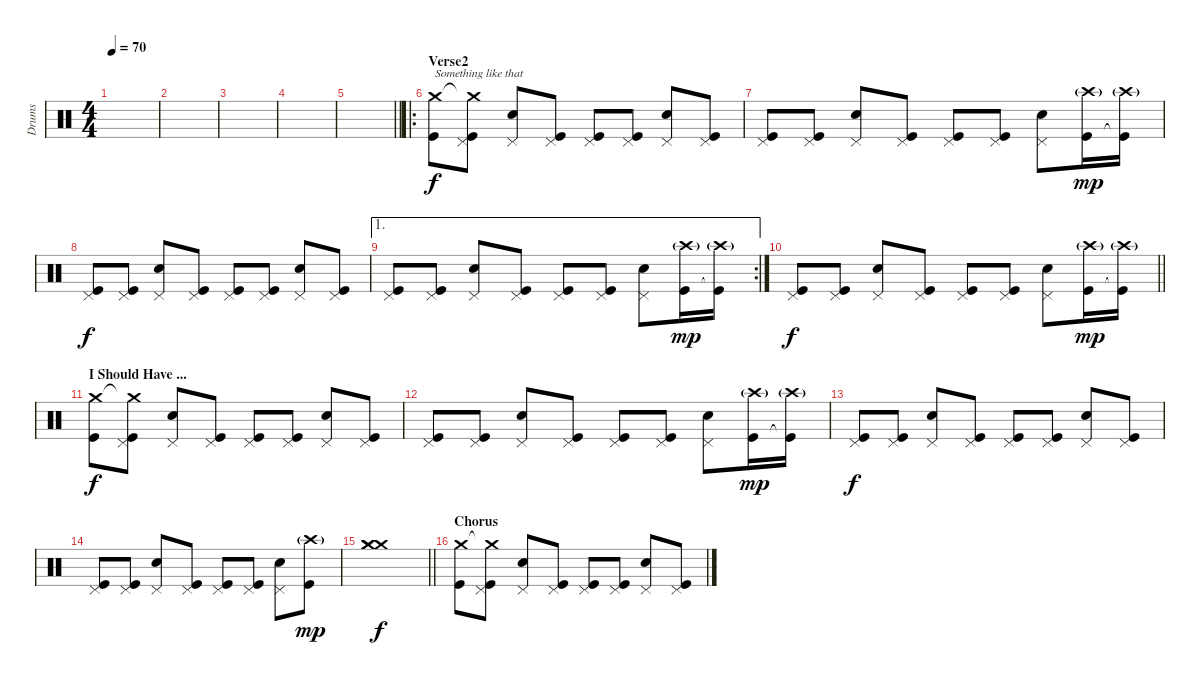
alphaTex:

\track ("Drums" "Drums") {instrument percussion}
\staff {score}
\articulation defaults
\ts (4 4)
\tempo 70
\clef neutral
\ks c
|
|
|
|
\barLineRight lightlight
|
\ro
\section ("" "Verse2")
("Crash medium (hit)" "Kick (hit)").8{txt "Something like that"} ("Crash medium (hit)"{t} "Pedal Hi-Hat (hit)" "Kick (hit)").8 ("Pedal Hi-Hat (hit)" "Snare (hit) 2").8 ("Pedal Hi-Hat (hit)" "Kick (hit)").8 ("Pedal Hi-Hat (hit)" "Kick (hit)").8 ("Pedal Hi-Hat (hit)" "Kick (hit)").8 ("Pedal Hi-Hat (hit)" "Snare (hit) 2").8 ("Pedal Hi-Hat (hit)" "Kick (hit)").8 |
("Pedal Hi-Hat (hit)" "Kick (hit)").8 ("Pedal Hi-Hat (hit)" "Kick (hit)").8 ("Pedal Hi-Hat (hit)" "Snare (hit) 2").8 ("Pedal Hi-Hat (hit)" "Kick (hit)").8 ("Pedal Hi-Hat (hit)" "Kick (hit)").8 ("Pedal Hi-Hat (hit)" "Kick (hit)").8 ("Pedal Hi-Hat (hit)" "Snare (hit) 2").8 ("Crash high (hit)"{g} "Kick (hit)").16{dy mp} ("Crash high (hit)"{g} "Kick (hit)"{t}).16 |
("Pedal Hi-Hat (hit)" "Kick (hit)").8{dy f} ("Pedal Hi-Hat (hit)" "Kick (hit)").8 ("Pedal Hi-Hat (hit)" "Snare (hit) 2").8 ("Pedal Hi-Hat (hit)" "Kick (hit)").8 ("Pedal Hi-Hat (hit)" "Kick (hit)").8 ("Pedal Hi-Hat (hit)" "Kick (hit)").8 ("Pedal Hi-Hat (hit)" "Snare (hit) 2").8 ("Pedal Hi-Hat (hit)" "Kick (hit)").8 |
\ae 1
\rc 2
("Pedal Hi-Hat (hit)" "Kick (hit)").8 ("Pedal Hi-Hat (hit)" "Kick (hit)").8 ("Pedal Hi-Hat (hit)" "Snare (hit) 2").8 ("Pedal Hi-Hat (hit)" "Kick (hit)").8 ("Pedal Hi-Hat (hit)" "Kick (hit)").8 ("Pedal Hi-Hat (hit)" "Kick (hit)").8 ("Pedal Hi-Hat (hit)" "Snare (hit) 2").8 ("Crash high (hit)"{g} "Kick (hit)").16{dy mp} ("Crash high (hit)"{g} "Kick (hit)"{t}).16 |
\barLineRight lightlight
("Pedal Hi-Hat (hit)" "Kick (hit)").8{dy f} ("Pedal Hi-Hat (hit)" "Kick (hit)").8 ("Pedal Hi-Hat (hit)" "Snare (hit) 2").8 ("Pedal Hi-Hat (hit)" "Kick (hit)").8 ("Pedal Hi-Hat (hit)" "Kick (hit)").8 ("Pedal Hi-Hat (hit)" "Kick (hit)").8 ("Pedal Hi-Hat (hit)" "Snare (hit) 2").8 ("Crash high (hit)"{g} "Kick (hit)").16{dy mp} ("Crash high (hit)"{g} "Kick (hit)"{t}).16 |
\section ("" "I Should Have ...")
("Crash medium (hit)" "Kick (hit)").8{dy f} ("Crash medium (hit)"{t} "Pedal Hi-Hat (hit)" "Kick (hit)").8 ("Pedal Hi-Hat (hit)" "Snare (hit) 2").8 ("Pedal Hi-Hat (hit)" "Kick (hit)").8 ("Pedal Hi-Hat (hit)" "Kick (hit)").8 ("Pedal Hi-Hat (hit)" "Kick (hit)").8 ("Pedal Hi-Hat (hit)" "Snare (hit) 2").8 ("Pedal Hi-Hat (hit)" "Kick (hit)").8 |
("Pedal Hi-Hat (hit)" "Kick (hit)").8 ("Pedal Hi-Hat (hit)" "Kick (hit)").8 ("Pedal Hi-Hat (hit)" "Snare (hit) 2").8 ("Pedal Hi-Hat (hit)" "Kick (hit)").8 ("Pedal Hi-Hat (hit)" "Kick (hit)").8 ("Pedal Hi-Hat (hit)" "Kick (hit)").8 ("Pedal Hi-Hat (hit)" "Snare (hit) 2").8 ("Crash high (hit)"{g} "Kick (hit)").16{dy mp} ("Crash high (hit)"{g} "Kick (hit)"{t}).16 |
("Pedal Hi-Hat (hit)" "Kick (hit)").8{dy f} ("Pedal Hi-Hat (hit)" "Kick (hit)").8 ("Pedal Hi-Hat (hit)" "Snare (hit) 2").8 ("Pedal Hi-Hat (hit)" "Kick (hit)").8 ("Pedal Hi-Hat (hit)" "Kick (hit)").8 ("Pedal Hi-Hat (hit)" "Kick (hit)").8 ("Pedal Hi-Hat (hit)" "Snare (hit) 2").8 ("Pedal Hi-Hat (hit)" "Kick (hit)").8 |
("Pedal Hi-Hat (hit)" "Kick (hit)").8 ("Pedal Hi-Hat (hit)" "Kick (hit)").8 ("Pedal Hi-Hat (hit)" "Snare (hit) 2").8 ("Pedal Hi-Hat (hit)" "Kick (hit)").8 ("Pedal Hi-Hat (hit)" "Kick (hit)").8 ("Pedal Hi-Hat (hit)" "Kick (hit)").8 ("Pedal Hi-Hat (hit)" "Snare (hit) 2").8 ("Crash high (hit)"{g} "Kick (hit)").8{dy mp} |
\barLineRight lightlight
("Crash medium (hit)" "Crash medium (hit)" "Crash medium (hit)").1{dy f} |
\section ("" "Chorus")
("Crash medium (hit)" "Kick (hit)").8 ("Crash medium (hit)"{t} "Pedal Hi-Hat (hit)" "Kick (hit)").8 ("Pedal Hi-Hat (hit)" "Snare (hit) 2").8 ("Pedal Hi-Hat (hit)" "Kick (hit)").8 ("Pedal Hi-Hat (hit)" "Kick (hit)").8 ("Pedal Hi-Hat (hit)" "Kick (hit)").8 ("Pedal Hi-Hat (hit)" "Snare (hit) 2").8 ("Pedal Hi-Hat (hit)" "Kick (hit)").8
